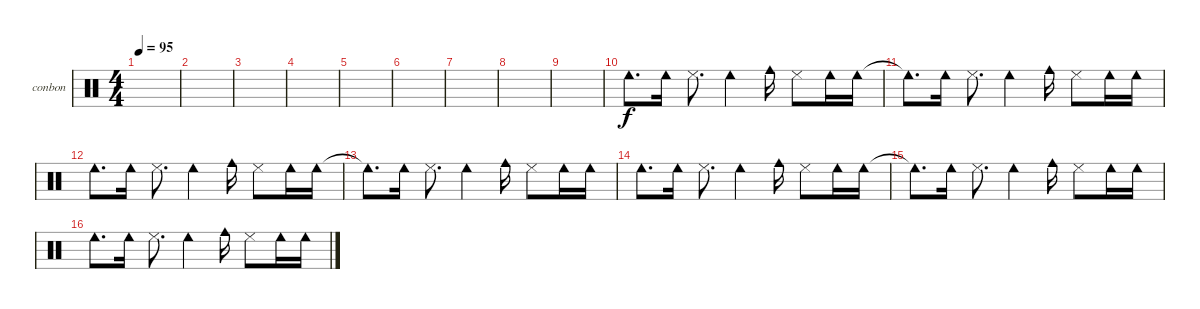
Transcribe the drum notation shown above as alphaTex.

\defaultSystemsLayout 4
\bracketExtendMode groupsimilarinstruments
\firstSystemTrackNameOrientation horizontal
\otherSystemsTrackNameOrientation horizontal
\track ("Bongos N Congas" "conbon") {instrument percussion}
\staff {score}
\articulation defaults
\ts (4 4)
\tempo 95
\clef neutral
\scale
0.472222
\ks c
|
\scale
0.263889 |
\scale
0.263889 |
\scale
0.333333 |
\scale
0.333333 |
\scale
0.333333 |
\scale
0.333333 |
\scale
0.333333 |
\scale
0.333333 |
\scale
0.333333 "Cowbell low (hit)".8{d} "Cowbell low (hit)".16 "Cowbell low (tip)".8{d} "Cowbell low (hit)".4 "Cowbell medium (hit)".16 "Cowbell low (tip)".8 "Cowbell low (hit)".16 "Cowbell low (hit)".16 |
\scale
0.333333 "Cowbell low (hit)"{t}.8{d} "Cowbell low (hit)".16 "Cowbell low (tip)".8{d} "Cowbell low (hit)".4 "Cowbell medium (hit)".16 "Cowbell low (tip)".8 "Cowbell low (hit)".16 "Cowbell low (hit)".16 |
\scale
0.333333 "Cowbell low (hit)".8{d} "Cowbell low (hit)".16 "Cowbell low (tip)".8{d} "Cowbell low (hit)".4 "Cowbell medium (hit)".16 "Cowbell low (tip)".8 "Cowbell low (hit)".16 "Cowbell low (hit)".16 |
\scale
0.333333 "Cowbell low (hit)"{t}.8{d} "Cowbell low (hit)".16 "Cowbell low (tip)".8{d} "Cowbell low (hit)".4 "Cowbell medium (hit)".16 "Cowbell low (tip)".8 "Cowbell low (hit)".16 "Cowbell low (hit)".16 |
\scale
0.333333 "Cowbell low (hit)".8{d} "Cowbell low (hit)".16 "Cowbell low (tip)".8{d} "Cowbell low (hit)".4 "Cowbell medium (hit)".16 "Cowbell low (tip)".8 "Cowbell low (hit)".16 "Cowbell low (hit)".16 |
\scale
0.333333 "Cowbell low (hit)"{t}.8{d} "Cowbell low (hit)".16 "Cowbell low (tip)".8{d} "Cowbell low (hit)".4 "Cowbell medium (hit)".16 "Cowbell low (tip)".8 "Cowbell low (hit)".16 "Cowbell low (hit)".16 |
\scale
0.333333 "Cowbell low (hit)".8{d} "Cowbell low (hit)".16 "Cowbell low (tip)".8{d} "Cowbell low (hit)".4 "Cowbell medium (hit)".16 "Cowbell low (tip)".8 "Cowbell low (hit)".16 "Cowbell low (hit)".16
